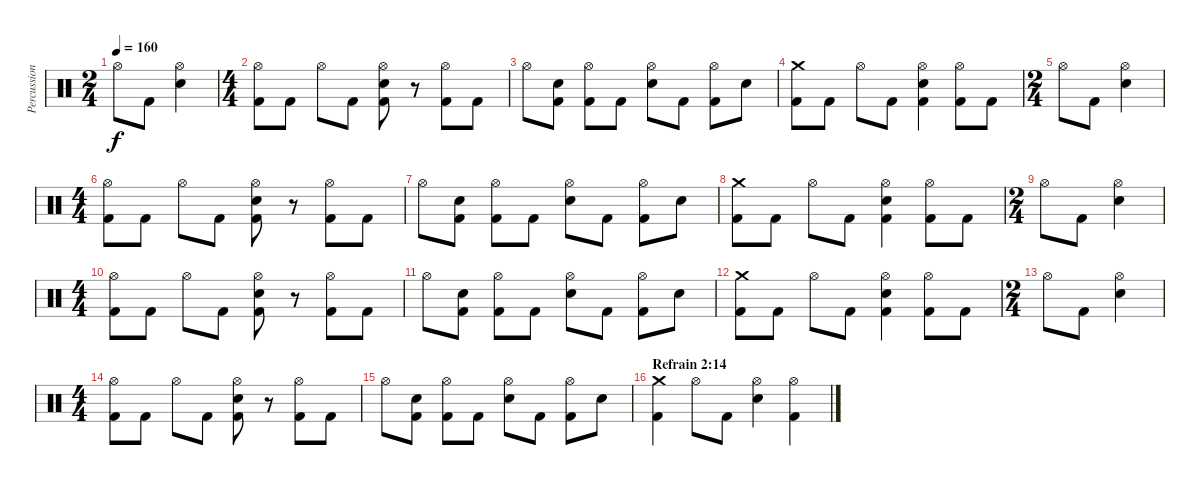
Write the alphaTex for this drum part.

\track ("Percussion" "Percussion") {instrument percussion}
\staff {score}
\articulation defaults
\ts (2 4)
\tempo 160
\clef neutral
\ks c "Hi-Hat (open)".8{dy f} "Kick (hit) 2".8
("Hi-Hat (open)" "Snare (hit) 2").4 |
\ts (4 4)
("Hi-Hat (open)" "Kick (hit) 2").8 "Kick (hit) 2".8 "Hi-Hat (open)".8 "Kick (hit) 2".8 ("Hi-Hat (open)" "Snare (hit) 2" "Kick (hit) 2").8 r.8 ("Hi-Hat (open)" "Kick (hit) 2").8 "Kick (hit) 2".8 |
"Hi-Hat (open)".8 ("Snare (hit) 2" "Kick (hit) 2").8 ("Hi-Hat (open)" "Kick (hit) 2").8 "Kick (hit) 2".8 ("Hi-Hat (open)" "Snare (hit) 2").8 "Kick (hit) 2".8 ("Hi-Hat (open)" "Kick (hit) 2").8 "Snare (hit) 2".8 |
("Crash medium (hit)" "Kick (hit) 2").8 "Kick (hit) 2".8 "Hi-Hat (open)".8 "Kick (hit) 2".8 ("Hi-Hat (open)" "Snare (hit) 2" "Kick (hit) 2").4 ("Hi-Hat (open)" "Kick (hit) 2").8 "Kick (hit) 2".8 |
\ts (2 4)
"Hi-Hat (open)".8 "Kick (hit) 2".8 ("Hi-Hat (open)" "Snare (hit) 2").4 |
\ts (4 4)
("Hi-Hat (open)" "Kick (hit) 2").8 "Kick (hit) 2".8 "Hi-Hat (open)".8 "Kick (hit) 2".8 ("Hi-Hat (open)" "Snare (hit) 2" "Kick (hit) 2").8 r.8 ("Hi-Hat (open)" "Kick (hit) 2").8 "Kick (hit) 2".8 |
"Hi-Hat (open)".8 ("Snare (hit) 2" "Kick (hit) 2").8 ("Hi-Hat (open)" "Kick (hit) 2").8 "Kick (hit) 2".8 ("Hi-Hat (open)" "Snare (hit) 2").8 "Kick (hit) 2".8 ("Hi-Hat (open)" "Kick (hit) 2").8 "Snare (hit) 2".8 |
("Crash medium (hit)" "Kick (hit) 2").8 "Kick (hit) 2".8 "Hi-Hat (open)".8 "Kick (hit) 2".8 ("Hi-Hat (open)" "Snare (hit) 2" "Kick (hit) 2").4 ("Hi-Hat (open)" "Kick (hit) 2").8 "Kick (hit) 2".8 |
\ts (2 4)
"Hi-Hat (open)".8 "Kick (hit) 2".8 ("Hi-Hat (open)" "Snare (hit) 2").4 |
\ts (4 4)
("Hi-Hat (open)" "Kick (hit) 2").8 "Kick (hit) 2".8 "Hi-Hat (open)".8 "Kick (hit) 2".8 ("Hi-Hat (open)" "Snare (hit) 2" "Kick (hit) 2").8 r.8 ("Hi-Hat (open)" "Kick (hit) 2").8 "Kick (hit) 2".8 |
"Hi-Hat (open)".8 ("Snare (hit) 2" "Kick (hit) 2").8 ("Hi-Hat (open)" "Kick (hit) 2").8 "Kick (hit) 2".8 ("Hi-Hat (open)" "Snare (hit) 2").8 "Kick (hit) 2".8 ("Hi-Hat (open)" "Kick (hit) 2").8 "Snare (hit) 2".8 |
("Crash medium (hit)" "Kick (hit) 2").8 "Kick (hit) 2".8 "Hi-Hat (open)".8 "Kick (hit) 2".8 ("Hi-Hat (open)" "Snare (hit) 2" "Kick (hit) 2").4 ("Hi-Hat (open)" "Kick (hit) 2").8 "Kick (hit) 2".8 |
\ts (2 4)
"Hi-Hat (open)".8 "Kick (hit) 2".8 ("Hi-Hat (open)" "Snare (hit) 2").4 |
\ts (4 4)
("Hi-Hat (open)" "Kick (hit) 2").8 "Kick (hit) 2".8 "Hi-Hat (open)".8 "Kick (hit) 2".8 ("Hi-Hat (open)" "Snare (hit) 2" "Kick (hit) 2").8 r.8 ("Hi-Hat (open)" "Kick (hit) 2").8 "Kick (hit) 2".8 |
"Hi-Hat (open)".8 ("Snare (hit) 2" "Kick (hit) 2").8 ("Hi-Hat (open)" "Kick (hit) 2").8 "Kick (hit) 2".8 ("Hi-Hat (open)" "Snare (hit) 2").8 "Kick (hit) 2".8 ("Hi-Hat (open)" "Kick (hit) 2").8 "Snare (hit) 2".8 |
\section ("" "Refrain 2:14")
("Crash medium (hit)" "Kick (hit) 2").4 "Hi-Hat (open)".8 "Kick (hit) 2".8 ("Hi-Hat (open)" "Snare (hit) 2").4 ("Hi-Hat (open)" "Kick (hit) 2").4
